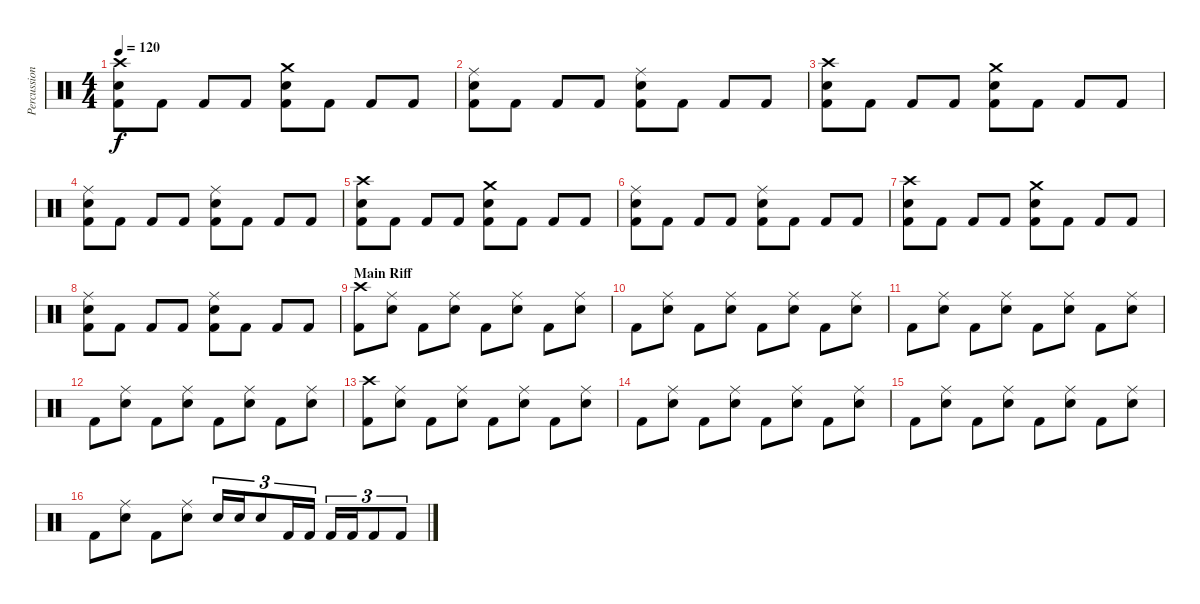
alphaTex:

\track ("Percussioni" "Percussion") {instrument percussion}
\staff {score}
\articulation defaults
\ts (4 4)
\tempo 120
\clef neutral
\ks c
("Crash high (hit)" "Electric Snare (hit)" "Kick (hit) 2").8{dy f} "Kick (hit) 2".8 "Kick (hit) 2".8 "Kick (hit) 2".8 ("Crash medium (hit)" "Electric Snare (hit)" "Kick (hit) 2").8 "Kick (hit) 2".8 "Kick (hit) 2".8 "Kick (hit) 2".8 |
("Ride (middle)" "Electric Snare (hit)" "Kick (hit) 2").8 "Kick (hit) 2".8 "Kick (hit) 2".8 "Kick (hit) 2".8 ("Ride (middle)" "Electric Snare (hit)" "Kick (hit) 2").8 "Kick (hit) 2".8 "Kick (hit) 2".8 "Kick (hit) 2".8 |
("Crash high (hit)" "Electric Snare (hit)" "Kick (hit) 2").8 "Kick (hit) 2".8 "Kick (hit) 2".8 "Kick (hit) 2".8 ("Crash medium (hit)" "Electric Snare (hit)" "Kick (hit) 2").8 "Kick (hit) 2".8 "Kick (hit) 2".8 "Kick (hit) 2".8 |
("Ride (middle)" "Electric Snare (hit)" "Kick (hit) 2").8 "Kick (hit) 2".8 "Kick (hit) 2".8 "Kick (hit) 2".8 ("Ride (middle)" "Electric Snare (hit)" "Kick (hit) 2").8 "Kick (hit) 2".8 "Kick (hit) 2".8 "Kick (hit) 2".8 |
("Crash high (hit)" "Electric Snare (hit)" "Kick (hit) 2").8 "Kick (hit) 2".8 "Kick (hit) 2".8 "Kick (hit) 2".8 ("Crash medium (hit)" "Electric Snare (hit)" "Kick (hit) 2").8 "Kick (hit) 2".8 "Kick (hit) 2".8 "Kick (hit) 2".8 |
("Ride (middle)" "Electric Snare (hit)" "Kick (hit) 2").8 "Kick (hit) 2".8 "Kick (hit) 2".8 "Kick (hit) 2".8 ("Ride (middle)" "Electric Snare (hit)" "Kick (hit) 2").8 "Kick (hit) 2".8 "Kick (hit) 2".8 "Kick (hit) 2".8 |
("Crash high (hit)" "Electric Snare (hit)" "Kick (hit) 2").8 "Kick (hit) 2".8 "Kick (hit) 2".8 "Kick (hit) 2".8 ("Crash medium (hit)" "Electric Snare (hit)" "Kick (hit) 2").8 "Kick (hit) 2".8 "Kick (hit) 2".8 "Kick (hit) 2".8 |
("Ride (middle)" "Electric Snare (hit)" "Kick (hit) 2").8 "Kick (hit) 2".8 "Kick (hit) 2".8 "Kick (hit) 2".8 ("Ride (middle)" "Electric Snare (hit)" "Kick (hit) 2").8 "Kick (hit) 2".8 "Kick (hit) 2".8 "Kick (hit) 2".8 |
\section ("" "Main Riff")
("Crash high (hit)" "Kick (hit) 2").8 ("Ride (middle)" "Electric Snare (hit)").8 "Kick (hit) 2".8 ("Ride (middle)" "Electric Snare (hit)").8 "Kick (hit) 2".8 ("Ride (middle)" "Electric Snare (hit)").8 "Kick (hit) 2".8 ("Ride (middle)" "Electric Snare (hit)").8 |
"Kick (hit) 2".8 ("Ride (middle)" "Electric Snare (hit)").8 "Kick (hit) 2".8 ("Ride (middle)" "Electric Snare (hit)").8 "Kick (hit) 2".8 ("Ride (middle)" "Electric Snare (hit)").8 "Kick (hit) 2".8 ("Ride (middle)" "Electric Snare (hit)").8 |
"Kick (hit) 2".8 ("Ride (middle)" "Electric Snare (hit)").8 "Kick (hit) 2".8 ("Ride (middle)" "Electric Snare (hit)").8 "Kick (hit) 2".8 ("Ride (middle)" "Electric Snare (hit)").8 "Kick (hit) 2".8 ("Ride (middle)" "Electric Snare (hit)").8 |
"Kick (hit) 2".8 ("Ride (middle)" "Electric Snare (hit)").8 "Kick (hit) 2".8 ("Ride (middle)" "Electric Snare (hit)").8 "Kick (hit) 2".8 ("Ride (middle)" "Electric Snare (hit)").8 "Kick (hit) 2".8 ("Ride (middle)" "Electric Snare (hit)").8 |
("Crash high (hit)" "Kick (hit) 2").8 ("Ride (middle)" "Electric Snare (hit)").8 "Kick (hit) 2".8 ("Ride (middle)" "Electric Snare (hit)").8 "Kick (hit) 2".8 ("Ride (middle)" "Electric Snare (hit)").8 "Kick (hit) 2".8 ("Ride (middle)" "Electric Snare (hit)").8 |
"Kick (hit) 2".8 ("Ride (middle)" "Electric Snare (hit)").8 "Kick (hit) 2".8 ("Ride (middle)" "Electric Snare (hit)").8 "Kick (hit) 2".8 ("Ride (middle)" "Electric Snare (hit)").8 "Kick (hit) 2".8 ("Ride (middle)" "Electric Snare (hit)").8 |
"Kick (hit) 2".8 ("Ride (middle)" "Electric Snare (hit)").8 "Kick (hit) 2".8 ("Ride (middle)" "Electric Snare (hit)").8 "Kick (hit) 2".8 ("Ride (middle)" "Electric Snare (hit)").8 "Kick (hit) 2".8 ("Ride (middle)" "Electric Snare (hit)").8 |
"Kick (hit) 2".8 ("Ride (middle)" "Electric Snare (hit)").8 "Kick (hit) 2".8 ("Ride (middle)" "Electric Snare (hit)").8 "Electric Snare (hit)".16{tu (3 2)} "Electric Snare (hit)".16{tu (3 2)} "Electric Snare (hit)".8{tu (3 2)} "Kick (hit) 2".16{tu (3 2)} "Kick (hit) 2".16{tu (3 2)} "Kick (hit) 2".16{tu (3 2)} "Kick (hit) 2".16{tu (3 2)} "Kick (hit) 2".8{tu (3 2)} "Kick (hit) 2".8{tu (3 2)}
